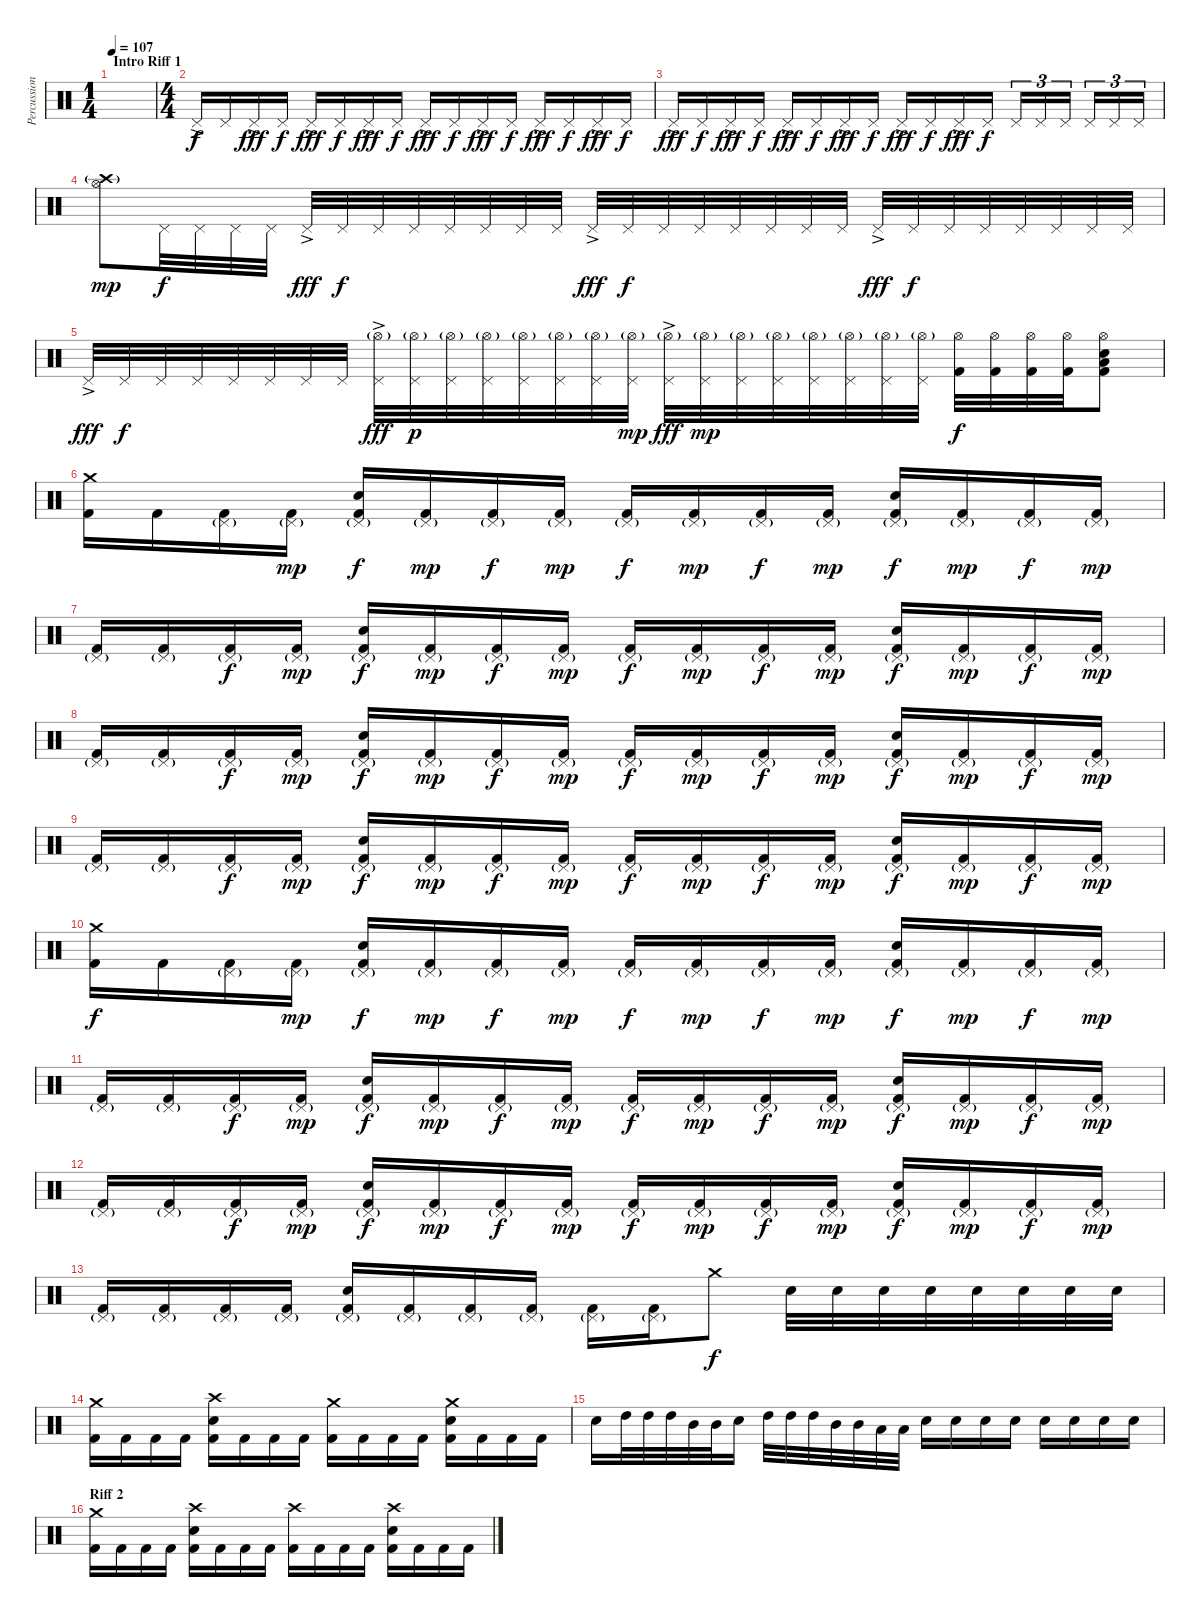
\track ("Percussions" "Percussion") {instrument percussion}
\staff {score}
\articulation defaults
\ts (1 4)
\section ("" "Intro Riff 1")
\tempo 107
\clef neutral
\ks c
|
\ts (4 4)
"Pedal Hi-Hat (hit)"{ac}.16 "Pedal Hi-Hat (hit)".16{dy f} "Pedal Hi-Hat (hit)"{ac}.16{dy fff} "Pedal Hi-Hat (hit)".16{dy f} "Pedal Hi-Hat (hit)"{ac}.16{dy fff} "Pedal Hi-Hat (hit)".16{dy f} "Pedal Hi-Hat (hit)"{ac}.16{dy fff} "Pedal Hi-Hat (hit)".16{dy f} "Pedal Hi-Hat (hit)"{ac}.16{dy fff} "Pedal Hi-Hat (hit)".16{dy f} "Pedal Hi-Hat (hit)"{ac}.16{dy fff} "Pedal Hi-Hat (hit)".16{dy f} "Pedal Hi-Hat (hit)"{ac}.16{dy fff} "Pedal Hi-Hat (hit)".16{dy f} "Pedal Hi-Hat (hit)"{ac}.16{dy fff} "Pedal Hi-Hat (hit)".16{dy f} |
"Pedal Hi-Hat (hit)"{ac}.16{dy fff} "Pedal Hi-Hat (hit)".16{dy f} "Pedal Hi-Hat (hit)"{ac}.16{dy fff} "Pedal Hi-Hat (hit)".16{dy f} "Pedal Hi-Hat (hit)"{ac}.16{dy fff} "Pedal Hi-Hat (hit)".16{dy f} "Pedal Hi-Hat (hit)"{ac}.16{dy fff} "Pedal Hi-Hat (hit)".16{dy f} "Pedal Hi-Hat (hit)"{ac}.16{dy fff} "Pedal Hi-Hat (hit)".16{dy f} "Pedal Hi-Hat (hit)"{ac}.16{dy fff} "Pedal Hi-Hat (hit)".16{dy f} "Pedal Hi-Hat (hit)".16{tu (3 2)} "Pedal Hi-Hat (hit)".16{tu (3 2)} "Pedal Hi-Hat (hit)".16{tu (3 2)} "Pedal Hi-Hat (hit)".16{tu (3 2)} "Pedal Hi-Hat (hit)".16{tu (3 2)} "Pedal Hi-Hat (hit)".16{tu (3 2)} |
("Hi-Hat (open)" "Crash high (hit)"{g}).8{dy mp} "Pedal Hi-Hat (hit)".32{dy f} "Pedal Hi-Hat (hit)".32 "Pedal Hi-Hat (hit)".32 "Pedal Hi-Hat (hit)".32 "Pedal Hi-Hat (hit)"{ac}.32{dy fff} "Pedal Hi-Hat (hit)".32{dy f} "Pedal Hi-Hat (hit)".32 "Pedal Hi-Hat (hit)".32 "Pedal Hi-Hat (hit)".32 "Pedal Hi-Hat (hit)".32 "Pedal Hi-Hat (hit)".32 "Pedal Hi-Hat (hit)".32 "Pedal Hi-Hat (hit)"{ac}.32{dy fff} "Pedal Hi-Hat (hit)".32{dy f} "Pedal Hi-Hat (hit)".32 "Pedal Hi-Hat (hit)".32 "Pedal Hi-Hat (hit)".32 "Pedal Hi-Hat (hit)".32 "Pedal Hi-Hat (hit)".32 "Pedal Hi-Hat (hit)".32 "Pedal Hi-Hat (hit)"{ac}.32{dy fff} "Pedal Hi-Hat (hit)".32{dy f} "Pedal Hi-Hat (hit)".32 "Pedal Hi-Hat (hit)".32 "Pedal Hi-Hat (hit)".32 "Pedal Hi-Hat (hit)".32 "Pedal Hi-Hat (hit)".32 "Pedal Hi-Hat (hit)".32 |
"Pedal Hi-Hat (hit)"{ac}.32{dy fff} "Pedal Hi-Hat (hit)".32{dy f} "Pedal Hi-Hat (hit)".32 "Pedal Hi-Hat (hit)".32 "Pedal Hi-Hat (hit)".32 "Pedal Hi-Hat (hit)".32 "Pedal Hi-Hat (hit)".32 "Pedal Hi-Hat (hit)".32 ("Pedal Hi-Hat (hit)"{ac} "Hi-Hat (open)"{g}).32{dy fff} ("Pedal Hi-Hat (hit)" "Hi-Hat (open)"{g}).32{dy p} ("Pedal Hi-Hat (hit)" "Hi-Hat (open)"{g}).32 ("Pedal Hi-Hat (hit)" "Hi-Hat (open)"{g}).32 ("Pedal Hi-Hat (hit)" "Hi-Hat (open)"{g}).32 ("Pedal Hi-Hat (hit)" "Hi-Hat (open)"{g}).32 ("Pedal Hi-Hat (hit)" "Hi-Hat (open)"{g}).32 ("Pedal Hi-Hat (hit)" "Hi-Hat (open)"{g}).32{dy mp} ("Pedal Hi-Hat (hit)"{ac} "Hi-Hat (open)"{g}).32{dy fff} ("Pedal Hi-Hat (hit)" "Hi-Hat (open)"{g}).32{dy mp} ("Pedal Hi-Hat (hit)" "Hi-Hat (open)"{g}).32 ("Pedal Hi-Hat (hit)" "Hi-Hat (open)"{g}).32 ("Pedal Hi-Hat (hit)" "Hi-Hat (open)"{g}).32 ("Pedal Hi-Hat (hit)" "Hi-Hat (open)"{g}).32 ("Pedal Hi-Hat (hit)" "Hi-Hat (open)"{g}).32 ("Pedal Hi-Hat (hit)" "Hi-Hat (open)"{g}).32 ("Hi-Hat (open)" "Kick (hit) 2").32{dy f} ("Hi-Hat (open)" "Kick (hit) 2").32 ("Hi-Hat (open)" "Kick (hit) 2").32 ("Hi-Hat (open)" "Kick (hit) 2").32 ("Hi-Hat (open)" "Low Tom (hit)" "Electric Snare (hit)" "Kick (hit) 2").8 |
("Crash medium (hit)" "Kick (hit) 2").16 "Kick (hit) 2".16 ("Pedal Hi-Hat (hit)"{g} "Kick (hit) 2").16 ("Pedal Hi-Hat (hit)"{g} "Kick (hit) 2").16{dy mp} ("Pedal Hi-Hat (hit)"{g} "Electric Snare (hit)" "Kick (hit) 2").16{dy f} ("Pedal Hi-Hat (hit)"{g} "Kick (hit) 2").16{dy mp} ("Pedal Hi-Hat (hit)"{g} "Kick (hit) 2").16{dy f} ("Pedal Hi-Hat (hit)"{g} "Kick (hit) 2").16{dy mp} ("Pedal Hi-Hat (hit)"{g} "Kick (hit) 2").16{dy f} ("Pedal Hi-Hat (hit)"{g} "Kick (hit) 2").16{dy mp} ("Pedal Hi-Hat (hit)"{g} "Kick (hit) 2").16{dy f} ("Pedal Hi-Hat (hit)"{g} "Kick (hit) 2").16{dy mp} ("Pedal Hi-Hat (hit)"{g} "Electric Snare (hit)" "Kick (hit) 2").16{dy f} ("Pedal Hi-Hat (hit)"{g} "Kick (hit) 2").16{dy mp} ("Pedal Hi-Hat (hit)"{g} "Kick (hit) 2").16{dy f} ("Pedal Hi-Hat (hit)"{g} "Kick (hit) 2").16{dy mp} |
("Pedal Hi-Hat (hit)"{g} "Kick (hit) 2").16 ("Pedal Hi-Hat (hit)"{g} "Kick (hit) 2").16 ("Pedal Hi-Hat (hit)"{g} "Kick (hit) 2").16{dy f} ("Pedal Hi-Hat (hit)"{g} "Kick (hit) 2").16{dy mp} ("Pedal Hi-Hat (hit)"{g} "Electric Snare (hit)" "Kick (hit) 2").16{dy f} ("Pedal Hi-Hat (hit)"{g} "Kick (hit) 2").16{dy mp} ("Pedal Hi-Hat (hit)"{g} "Kick (hit) 2").16{dy f} ("Pedal Hi-Hat (hit)"{g} "Kick (hit) 2").16{dy mp} ("Pedal Hi-Hat (hit)"{g} "Kick (hit) 2").16{dy f} ("Pedal Hi-Hat (hit)"{g} "Kick (hit) 2").16{dy mp} ("Pedal Hi-Hat (hit)"{g} "Kick (hit) 2").16{dy f} ("Pedal Hi-Hat (hit)"{g} "Kick (hit) 2").16{dy mp} ("Pedal Hi-Hat (hit)"{g} "Electric Snare (hit)" "Kick (hit) 2").16{dy f} ("Pedal Hi-Hat (hit)"{g} "Kick (hit) 2").16{dy mp} ("Pedal Hi-Hat (hit)"{g} "Kick (hit) 2").16{dy f} ("Pedal Hi-Hat (hit)"{g} "Kick (hit) 2").16{dy mp} |
("Pedal Hi-Hat (hit)"{g} "Kick (hit) 2").16 ("Pedal Hi-Hat (hit)"{g} "Kick (hit) 2").16 ("Pedal Hi-Hat (hit)"{g} "Kick (hit) 2").16{dy f} ("Pedal Hi-Hat (hit)"{g} "Kick (hit) 2").16{dy mp} ("Pedal Hi-Hat (hit)"{g} "Electric Snare (hit)" "Kick (hit) 2").16{dy f} ("Pedal Hi-Hat (hit)"{g} "Kick (hit) 2").16{dy mp} ("Pedal Hi-Hat (hit)"{g} "Kick (hit) 2").16{dy f} ("Pedal Hi-Hat (hit)"{g} "Kick (hit) 2").16{dy mp} ("Pedal Hi-Hat (hit)"{g} "Kick (hit) 2").16{dy f} ("Pedal Hi-Hat (hit)"{g} "Kick (hit) 2").16{dy mp} ("Pedal Hi-Hat (hit)"{g} "Kick (hit) 2").16{dy f} ("Pedal Hi-Hat (hit)"{g} "Kick (hit) 2").16{dy mp} ("Pedal Hi-Hat (hit)"{g} "Electric Snare (hit)" "Kick (hit) 2").16{dy f} ("Pedal Hi-Hat (hit)"{g} "Kick (hit) 2").16{dy mp} ("Pedal Hi-Hat (hit)"{g} "Kick (hit) 2").16{dy f} ("Pedal Hi-Hat (hit)"{g} "Kick (hit) 2").16{dy mp} |
("Pedal Hi-Hat (hit)"{g} "Kick (hit) 2").16 ("Pedal Hi-Hat (hit)"{g} "Kick (hit) 2").16 ("Pedal Hi-Hat (hit)"{g} "Kick (hit) 2").16{dy f} ("Pedal Hi-Hat (hit)"{g} "Kick (hit) 2").16{dy mp} ("Pedal Hi-Hat (hit)"{g} "Electric Snare (hit)" "Kick (hit) 2").16{dy f} ("Pedal Hi-Hat (hit)"{g} "Kick (hit) 2").16{dy mp} ("Pedal Hi-Hat (hit)"{g} "Kick (hit) 2").16{dy f} ("Pedal Hi-Hat (hit)"{g} "Kick (hit) 2").16{dy mp} ("Pedal Hi-Hat (hit)"{g} "Kick (hit) 2").16{dy f} ("Pedal Hi-Hat (hit)"{g} "Kick (hit) 2").16{dy mp} ("Pedal Hi-Hat (hit)"{g} "Kick (hit) 2").16{dy f} ("Pedal Hi-Hat (hit)"{g} "Kick (hit) 2").16{dy mp} ("Pedal Hi-Hat (hit)"{g} "Electric Snare (hit)" "Kick (hit) 2").16{dy f} ("Pedal Hi-Hat (hit)"{g} "Kick (hit) 2").16{dy mp} ("Pedal Hi-Hat (hit)"{g} "Kick (hit) 2").16{dy f} ("Pedal Hi-Hat (hit)"{g} "Kick (hit) 2").16{dy mp} |
("Crash medium (hit)" "Kick (hit) 2").16{dy f} "Kick (hit) 2".16 ("Pedal Hi-Hat (hit)"{g} "Kick (hit) 2").16 ("Pedal Hi-Hat (hit)"{g} "Kick (hit) 2").16{dy mp} ("Pedal Hi-Hat (hit)"{g} "Electric Snare (hit)" "Kick (hit) 2").16{dy f} ("Pedal Hi-Hat (hit)"{g} "Kick (hit) 2").16{dy mp} ("Pedal Hi-Hat (hit)"{g} "Kick (hit) 2").16{dy f} ("Pedal Hi-Hat (hit)"{g} "Kick (hit) 2").16{dy mp} ("Pedal Hi-Hat (hit)"{g} "Kick (hit) 2").16{dy f} ("Pedal Hi-Hat (hit)"{g} "Kick (hit) 2").16{dy mp} ("Pedal Hi-Hat (hit)"{g} "Kick (hit) 2").16{dy f} ("Pedal Hi-Hat (hit)"{g} "Kick (hit) 2").16{dy mp} ("Pedal Hi-Hat (hit)"{g} "Electric Snare (hit)" "Kick (hit) 2").16{dy f} ("Pedal Hi-Hat (hit)"{g} "Kick (hit) 2").16{dy mp} ("Pedal Hi-Hat (hit)"{g} "Kick (hit) 2").16{dy f} ("Pedal Hi-Hat (hit)"{g} "Kick (hit) 2").16{dy mp} |
("Pedal Hi-Hat (hit)"{g} "Kick (hit) 2").16 ("Pedal Hi-Hat (hit)"{g} "Kick (hit) 2").16 ("Pedal Hi-Hat (hit)"{g} "Kick (hit) 2").16{dy f} ("Pedal Hi-Hat (hit)"{g} "Kick (hit) 2").16{dy mp} ("Pedal Hi-Hat (hit)"{g} "Electric Snare (hit)" "Kick (hit) 2").16{dy f} ("Pedal Hi-Hat (hit)"{g} "Kick (hit) 2").16{dy mp} ("Pedal Hi-Hat (hit)"{g} "Kick (hit) 2").16{dy f} ("Pedal Hi-Hat (hit)"{g} "Kick (hit) 2").16{dy mp} ("Pedal Hi-Hat (hit)"{g} "Kick (hit) 2").16{dy f} ("Pedal Hi-Hat (hit)"{g} "Kick (hit) 2").16{dy mp} ("Pedal Hi-Hat (hit)"{g} "Kick (hit) 2").16{dy f} ("Pedal Hi-Hat (hit)"{g} "Kick (hit) 2").16{dy mp} ("Pedal Hi-Hat (hit)"{g} "Electric Snare (hit)" "Kick (hit) 2").16{dy f} ("Pedal Hi-Hat (hit)"{g} "Kick (hit) 2").16{dy mp} ("Pedal Hi-Hat (hit)"{g} "Kick (hit) 2").16{dy f} ("Pedal Hi-Hat (hit)"{g} "Kick (hit) 2").16{dy mp} |
("Pedal Hi-Hat (hit)"{g} "Kick (hit) 2").16 ("Pedal Hi-Hat (hit)"{g} "Kick (hit) 2").16 ("Pedal Hi-Hat (hit)"{g} "Kick (hit) 2").16{dy f} ("Pedal Hi-Hat (hit)"{g} "Kick (hit) 2").16{dy mp} ("Pedal Hi-Hat (hit)"{g} "Electric Snare (hit)" "Kick (hit) 2").16{dy f} ("Pedal Hi-Hat (hit)"{g} "Kick (hit) 2").16{dy mp} ("Pedal Hi-Hat (hit)"{g} "Kick (hit) 2").16{dy f} ("Pedal Hi-Hat (hit)"{g} "Kick (hit) 2").16{dy mp} ("Pedal Hi-Hat (hit)"{g} "Kick (hit) 2").16{dy f} ("Pedal Hi-Hat (hit)"{g} "Kick (hit) 2").16{dy mp} ("Pedal Hi-Hat (hit)"{g} "Kick (hit) 2").16{dy f} ("Pedal Hi-Hat (hit)"{g} "Kick (hit) 2").16{dy mp} ("Pedal Hi-Hat (hit)"{g} "Electric Snare (hit)" "Kick (hit) 2").16{dy f} ("Pedal Hi-Hat (hit)"{g} "Kick (hit) 2").16{dy mp} ("Pedal Hi-Hat (hit)"{g} "Kick (hit) 2").16{dy f} ("Pedal Hi-Hat (hit)"{g} "Kick (hit) 2").16{dy mp} |
("Pedal Hi-Hat (hit)"{g} "Kick (hit) 2").16 ("Pedal Hi-Hat (hit)"{g} "Kick (hit) 2").16 ("Pedal Hi-Hat (hit)"{g} "Kick (hit) 2").16 ("Pedal Hi-Hat (hit)"{g} "Kick (hit) 2").16 ("Pedal Hi-Hat (hit)"{g} "Electric Snare (hit)" "Kick (hit) 2").16 ("Pedal Hi-Hat (hit)"{g} "Kick (hit) 2").16 ("Pedal Hi-Hat (hit)"{g} "Kick (hit) 2").16 ("Pedal Hi-Hat (hit)"{g} "Kick (hit) 2").16 ("Pedal Hi-Hat (hit)"{g} "Kick (hit) 2").16 ("Pedal Hi-Hat (hit)"{g} "Kick (hit) 2").16 "Crash medium (hit)".8{dy f} "Electric Snare (hit)".32 "Electric Snare (hit)".32 "Electric Snare (hit)".32 "Electric Snare (hit)".32 "Electric Snare (hit)".32 "Electric Snare (hit)".32 "Electric Snare (hit)".32 "Electric Snare (hit)".32 |
("Crash medium (hit)" "Kick (hit) 2").16 "Kick (hit) 2".16 "Kick (hit) 2".16 "Kick (hit) 2".16 ("Crash high (hit)" "Electric Snare (hit)" "Kick (hit) 2").16 "Kick (hit) 2".16 "Kick (hit) 2".16 "Kick (hit) 2".16 ("Crash medium (hit)" "Kick (hit) 2").16 "Kick (hit) 2".16 "Kick (hit) 2".16 "Kick (hit) 2".16 ("Crash medium (hit)" "Electric Snare (hit)" "Kick (hit) 2").16 "Kick (hit) 2".16 "Kick (hit) 2".16 "Kick (hit) 2".16 |
"Electric Snare (hit)".16 "High Tom (hit)".32 "High Tom (hit)".32 "High Tom (hit)".32 "Mid Tom (hit)".32 "Mid Tom (hit)".32 "Electric Snare (hit)".16 "High Tom (hit)".32 "High Tom (hit)".32 "High Tom (hit)".32 "Mid Tom (hit)".32 "Mid Tom (hit)".32 "Low Tom (hit)".32 "Low Tom (hit)".32 "Electric Snare (hit)".16 "Electric Snare (hit)".16 "Electric Snare (hit)".16 "Electric Snare (hit)".16 "Electric Snare (hit)".16 "Electric Snare (hit)".16 "Electric Snare (hit)".16 "Electric Snare (hit)".16 |
\section ("" "Riff 2")
("Crash medium (hit)" "Kick (hit) 2").16 "Kick (hit) 2".16 "Kick (hit) 2".16 "Kick (hit) 2".16 ("Crash high (hit)" "Electric Snare (hit)" "Kick (hit) 2").16 "Kick (hit) 2".16 "Kick (hit) 2".16 "Kick (hit) 2".16 ("Crash high (hit)" "Kick (hit) 2").16 "Kick (hit) 2".16 "Kick (hit) 2".16 "Kick (hit) 2".16 ("Crash high (hit)" "Electric Snare (hit)" "Kick (hit) 2").16 "Kick (hit) 2".16 "Kick (hit) 2".16 "Kick (hit) 2".16
